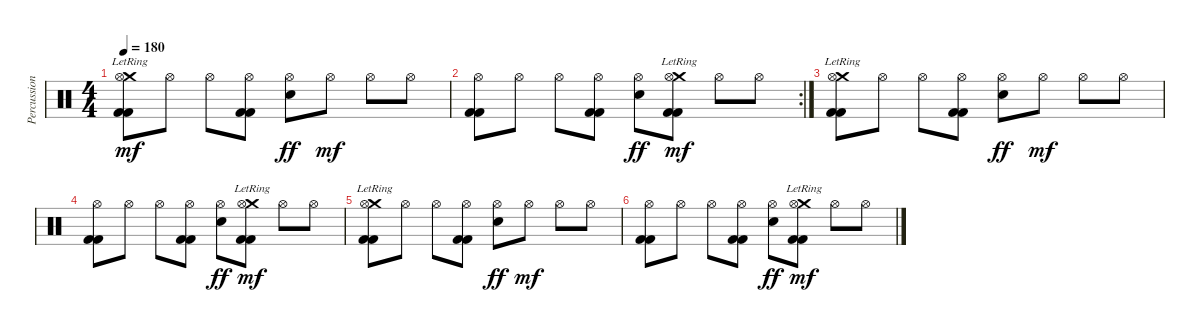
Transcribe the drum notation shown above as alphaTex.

\track ("Percussioni" "Percussion") {instrument percussion}
\staff {score}
\articulation defaults
\ts (4 4)
\tempo 180
\clef neutral
\ks c
("Crash medium (hit)"{lr} "Hi-Hat (open)" "Kick (hit) 2" "Kick (hit) 2").8{dy mf} "Hi-Hat (open)".8 "Hi-Hat (open)".8 ("Hi-Hat (open)" "Kick (hit) 2" "Kick (hit) 2").8 ("Hi-Hat (open)" "Snare (hit) 2").8{dy ff} "Hi-Hat (open)".8{dy mf} "Hi-Hat (open)".8 "Hi-Hat (open)".8 |
\rc 2
("Hi-Hat (open)" "Kick (hit) 2" "Kick (hit) 2").8 "Hi-Hat (open)".8 "Hi-Hat (open)".8 ("Hi-Hat (open)" "Kick (hit) 2" "Kick (hit) 2").8 ("Hi-Hat (open)" "Snare (hit) 2").8{dy ff} ("Crash medium (hit)"{lr} "Hi-Hat (open)" "Kick (hit) 2" "Kick (hit) 2").8{dy mf} "Hi-Hat (open)".8 "Hi-Hat (open)".8 |
("Crash medium (hit)"{lr} "Hi-Hat (open)" "Kick (hit) 2" "Kick (hit) 2").8 "Hi-Hat (open)".8 "Hi-Hat (open)".8 ("Hi-Hat (open)" "Kick (hit) 2" "Kick (hit) 2").8 ("Hi-Hat (open)" "Snare (hit) 2").8{dy ff} "Hi-Hat (open)".8{dy mf} "Hi-Hat (open)".8 "Hi-Hat (open)".8 |
("Hi-Hat (open)" "Kick (hit) 2" "Kick (hit) 2").8 "Hi-Hat (open)".8 "Hi-Hat (open)".8 ("Hi-Hat (open)" "Kick (hit) 2" "Kick (hit) 2").8 ("Hi-Hat (open)" "Snare (hit) 2").8{dy ff} ("Crash medium (hit)"{lr} "Hi-Hat (open)" "Kick (hit) 2" "Kick (hit) 2").8{dy mf} "Hi-Hat (open)".8 "Hi-Hat (open)".8 |
("Crash medium (hit)"{lr} "Hi-Hat (open)" "Kick (hit) 2" "Kick (hit) 2").8 "Hi-Hat (open)".8 "Hi-Hat (open)".8 ("Hi-Hat (open)" "Kick (hit) 2" "Kick (hit) 2").8 ("Hi-Hat (open)" "Snare (hit) 2").8{dy ff} "Hi-Hat (open)".8{dy mf} "Hi-Hat (open)".8 "Hi-Hat (open)".8 |
("Hi-Hat (open)" "Kick (hit) 2" "Kick (hit) 2").8 "Hi-Hat (open)".8 "Hi-Hat (open)".8 ("Hi-Hat (open)" "Kick (hit) 2" "Kick (hit) 2").8 ("Hi-Hat (open)" "Snare (hit) 2").8{dy ff} ("Crash medium (hit)"{lr} "Hi-Hat (open)" "Kick (hit) 2" "Kick (hit) 2").8{dy mf} "Hi-Hat (open)".8 "Hi-Hat (open)".8
